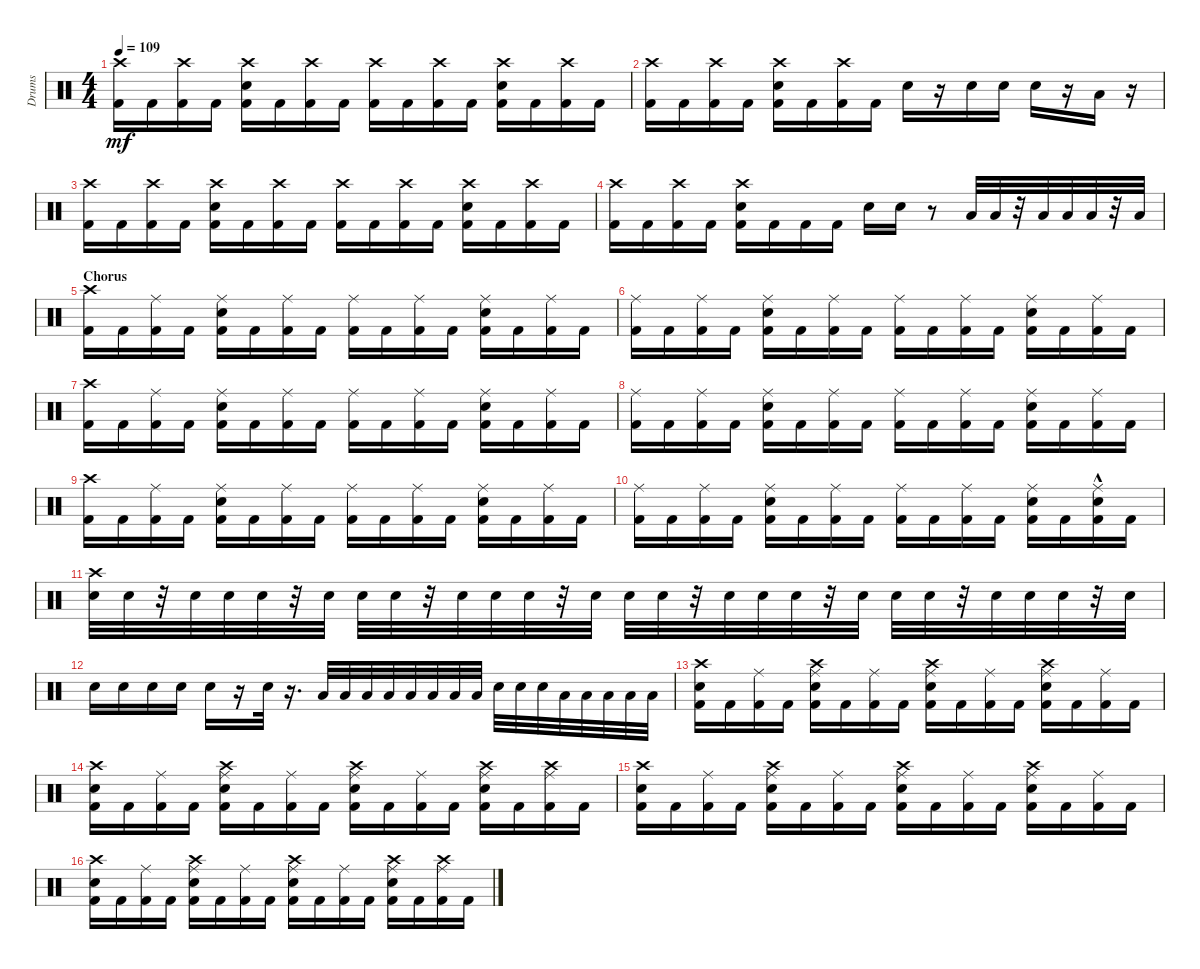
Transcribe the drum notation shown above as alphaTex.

\track ("Drums" "Drums") {instrument percussion}
\staff {score}
\articulation defaults
\ts (4 4)
\tempo 109
\clef neutral
\ks c
("Crash high (hit)" "Kick (hit) 2").16{dy mf} "Kick (hit) 2".16 ("Kick (hit) 2" "Crash high (hit)").16 "Kick (hit) 2".16 ("Crash high (hit)" "Snare (hit) 2" "Kick (hit) 2").16 "Kick (hit) 2".16 ("Kick (hit) 2" "Crash high (hit)").16 "Kick (hit) 2".16 ("Crash high (hit)" "Kick (hit) 2").16 "Kick (hit) 2".16 ("Kick (hit) 2" "Crash high (hit)").16 "Kick (hit) 2".16 ("Crash high (hit)" "Snare (hit) 2" "Kick (hit) 2").16 "Kick (hit) 2".16 ("Kick (hit) 2" "Crash high (hit)").16 "Kick (hit) 2".16 |
("Crash high (hit)" "Kick (hit) 2").16 "Kick (hit) 2".16 ("Kick (hit) 2" "Crash high (hit)").16 "Kick (hit) 2".16 ("Crash high (hit)" "Snare (hit) 2" "Kick (hit) 2").16 "Kick (hit) 2".16 ("Kick (hit) 2" "Crash high (hit)").16 "Kick (hit) 2".16 "Snare (hit) 2".16 r.16 "Snare (hit) 2".16 "Snare (hit) 2".16 "Snare (hit) 2".16 r.16 "Low Floor Tom (hit)".16 r.16 |
("Crash high (hit)" "Kick (hit) 2").16 "Kick (hit) 2".16 ("Kick (hit) 2" "Crash high (hit)").16 "Kick (hit) 2".16 ("Crash high (hit)" "Snare (hit) 2" "Kick (hit) 2").16 "Kick (hit) 2".16 ("Kick (hit) 2" "Crash high (hit)").16 "Kick (hit) 2".16 ("Crash high (hit)" "Kick (hit) 2").16 "Kick (hit) 2".16 ("Kick (hit) 2" "Crash high (hit)").16 "Kick (hit) 2".16 ("Crash high (hit)" "Snare (hit) 2" "Kick (hit) 2").16 "Kick (hit) 2".16 ("Kick (hit) 2" "Crash high (hit)").16 "Kick (hit) 2".16 |
("Crash high (hit)" "Kick (hit) 2").16 "Kick (hit) 2".16 ("Kick (hit) 2" "Crash high (hit)").16 "Kick (hit) 2".16 ("Crash high (hit)" "Snare (hit) 2" "Kick (hit) 2").16 "Kick (hit) 2".16 "Kick (hit) 2".16 "Kick (hit) 2".16 "Snare (hit) 2".16 "Snare (hit) 2".16 r.8 "Low Tom (hit)".32 "Low Tom (hit)".32 r.32 "Low Tom (hit)".32 "Low Floor Tom (hit)".32 "Low Floor Tom (hit)".32 r.32 "Low Floor Tom (hit)".32 |
\section ("" "Chorus")
("Kick (hit) 2" "Crash high (hit)").16 "Kick (hit) 2".16 ("Kick (hit) 2" "Ride (middle)").16 "Kick (hit) 2".16 ("Kick (hit) 2" "Snare (hit) 2" "Ride (middle)").16 "Kick (hit) 2".16 ("Kick (hit) 2" "Ride (middle)").16 "Kick (hit) 2".16 ("Kick (hit) 2" "Ride (middle)").16 "Kick (hit) 2".16 ("Kick (hit) 2" "Ride (middle)").16 "Kick (hit) 2".16 ("Kick (hit) 2" "Snare (hit) 2" "Ride (middle)").16 "Kick (hit) 2".16 ("Kick (hit) 2" "Ride (middle)").16 "Kick (hit) 2".16 |
("Ride (middle)" "Kick (hit) 2").16 "Kick (hit) 2".16 ("Ride (middle)" "Kick (hit) 2").16 "Kick (hit) 2".16 ("Ride (middle)" "Kick (hit) 2" "Snare (hit) 2").16 "Kick (hit) 2".16 ("Ride (middle)" "Kick (hit) 2").16 "Kick (hit) 2".16 ("Ride (middle)" "Kick (hit) 2").16 "Kick (hit) 2".16 ("Ride (middle)" "Kick (hit) 2").16 "Kick (hit) 2".16 ("Kick (hit) 2" "Snare (hit) 2" "Ride (middle)").16 "Kick (hit) 2".16 ("Kick (hit) 2" "Ride (middle)").16 "Kick (hit) 2".16 |
("Kick (hit) 2" "Crash high (hit)").16 "Kick (hit) 2".16 ("Kick (hit) 2" "Ride (middle)").16 "Kick (hit) 2".16 ("Kick (hit) 2" "Snare (hit) 2" "Ride (middle)").16 "Kick (hit) 2".16 ("Kick (hit) 2" "Ride (middle)").16 "Kick (hit) 2".16 ("Kick (hit) 2" "Ride (middle)").16 "Kick (hit) 2".16 ("Kick (hit) 2" "Ride (middle)").16 "Kick (hit) 2".16 ("Kick (hit) 2" "Snare (hit) 2" "Ride (middle)").16 "Kick (hit) 2".16 ("Kick (hit) 2" "Ride (middle)").16 "Kick (hit) 2".16 |
("Ride (middle)" "Kick (hit) 2").16 "Kick (hit) 2".16 ("Ride (middle)" "Kick (hit) 2").16 "Kick (hit) 2".16 ("Ride (middle)" "Kick (hit) 2" "Snare (hit) 2").16 "Kick (hit) 2".16 ("Ride (middle)" "Kick (hit) 2").16 "Kick (hit) 2".16 ("Ride (middle)" "Kick (hit) 2").16 "Kick (hit) 2".16 ("Ride (middle)" "Kick (hit) 2").16 "Kick (hit) 2".16 ("Kick (hit) 2" "Snare (hit) 2" "Ride (middle)").16 "Kick (hit) 2".16 ("Kick (hit) 2" "Ride (middle)").16 "Kick (hit) 2".16 |
("Kick (hit) 2" "Crash high (hit)").16 "Kick (hit) 2".16 ("Kick (hit) 2" "Ride (middle)").16 "Kick (hit) 2".16 ("Kick (hit) 2" "Snare (hit) 2" "Ride (middle)").16 "Kick (hit) 2".16 ("Kick (hit) 2" "Ride (middle)").16 "Kick (hit) 2".16 ("Kick (hit) 2" "Ride (middle)").16 "Kick (hit) 2".16 ("Kick (hit) 2" "Ride (middle)").16 "Kick (hit) 2".16 ("Kick (hit) 2" "Snare (hit) 2" "Ride (middle)").16 "Kick (hit) 2".16 ("Kick (hit) 2" "Ride (middle)").16 "Kick (hit) 2".16 |
("Ride (middle)" "Kick (hit) 2").16 "Kick (hit) 2".16 ("Ride (middle)" "Kick (hit) 2").16 "Kick (hit) 2".16 ("Ride (middle)" "Kick (hit) 2" "Snare (hit) 2").16 "Kick (hit) 2".16 ("Ride (middle)" "Kick (hit) 2").16 "Kick (hit) 2".16 ("Ride (middle)" "Kick (hit) 2").16 "Kick (hit) 2".16 ("Ride (middle)" "Kick (hit) 2").16 "Kick (hit) 2".16 ("Kick (hit) 2" "Snare (hit) 2" "Ride (middle)").16 "Kick (hit) 2".16 ("Kick (hit) 2" "Ride (middle)" "Snare (hit) 2"{hac}).16 "Kick (hit) 2".16 |
("Crash high (hit)" "Snare (hit) 2").32 "Snare (hit) 2".32 r.32 "Snare (hit) 2".32 "Snare (hit) 2".32 "Snare (hit) 2".32 r.32 "Snare (hit) 2".32 "Snare (hit) 2".32 "Snare (hit) 2".32 r.32 "Snare (hit) 2".32 "Snare (hit) 2".32 "Snare (hit) 2".32 r.32 "Snare (hit) 2".32 "Snare (hit) 2".32 "Snare (hit) 2".32 r.32 "Snare (hit) 2".32 "Snare (hit) 2".32 "Snare (hit) 2".32 r.32 "Snare (hit) 2".32 "Snare (hit) 2".32 "Snare (hit) 2".32 r.32 "Snare (hit) 2".32 "Snare (hit) 2".32 "Snare (hit) 2".32 r.32 "Snare (hit) 2".32 |
"Snare (hit) 2".16 "Snare (hit) 2".16 "Snare (hit) 2".16 "Snare (hit) 2".16 "Snare (hit) 2".16 r.16 "Snare (hit) 2".32 r.16{d} "Low Tom (hit)".32 "Low Tom (hit)".32 "Low Tom (hit)".32 "Low Floor Tom (hit)".32 "Low Floor Tom (hit)".32 "Low Tom (hit)".32 "Low Tom (hit)".32 "Low Tom (hit)".32 "Snare (hit) 2".32 "Snare (hit) 2".32 "Snare (hit) 2".32 "Low Tom (hit)".32 "Low Tom (hit)".32 "Low Tom (hit)".32 "Low Floor Tom (hit)".32 "Low Floor Tom (hit)".32 |
("Kick (hit) 2" "Crash high (hit)" "Snare (hit) 2").16 "Kick (hit) 2".16 ("Kick (hit) 2" "Ride (middle)").16 "Kick (hit) 2".16 ("Kick (hit) 2" "Snare (hit) 2" "Ride (middle)" "Crash high (hit)").16 "Kick (hit) 2".16 ("Kick (hit) 2" "Ride (middle)").16 "Kick (hit) 2".16 ("Kick (hit) 2" "Crash high (hit)" "Snare (hit) 2" "Ride (middle)").16 "Kick (hit) 2".16 ("Kick (hit) 2" "Ride (middle)").16 "Kick (hit) 2".16 ("Kick (hit) 2" "Snare (hit) 2" "Ride (middle)" "Crash high (hit)").16 "Kick (hit) 2".16 ("Kick (hit) 2" "Ride (middle)").16 "Kick (hit) 2".16 |
("Kick (hit) 2" "Crash high (hit)" "Snare (hit) 2").16 "Kick (hit) 2".16 ("Kick (hit) 2" "Ride (middle)").16 "Kick (hit) 2".16 ("Kick (hit) 2" "Snare (hit) 2" "Ride (middle)" "Crash high (hit)").16 "Kick (hit) 2".16 ("Kick (hit) 2" "Ride (middle)").16 "Kick (hit) 2".16 ("Kick (hit) 2" "Crash high (hit)" "Snare (hit) 2" "Ride (middle)").16 "Kick (hit) 2".16 ("Kick (hit) 2" "Ride (middle)").16 "Kick (hit) 2".16 ("Kick (hit) 2" "Snare (hit) 2" "Ride (middle)" "Crash high (hit)").16 "Kick (hit) 2".16 ("Kick (hit) 2" "Ride (middle)" "Crash high (hit)").16 "Kick (hit) 2".16 |
("Kick (hit) 2" "Crash high (hit)" "Snare (hit) 2").16 "Kick (hit) 2".16 ("Kick (hit) 2" "Ride (middle)").16 "Kick (hit) 2".16 ("Kick (hit) 2" "Snare (hit) 2" "Ride (middle)" "Crash high (hit)").16 "Kick (hit) 2".16 ("Kick (hit) 2" "Ride (middle)").16 "Kick (hit) 2".16 ("Kick (hit) 2" "Crash high (hit)" "Snare (hit) 2" "Ride (middle)").16 "Kick (hit) 2".16 ("Kick (hit) 2" "Ride (middle)").16 "Kick (hit) 2".16 ("Kick (hit) 2" "Snare (hit) 2" "Ride (middle)" "Crash high (hit)").16 "Kick (hit) 2".16 ("Kick (hit) 2" "Ride (middle)").16 "Kick (hit) 2".16 |
("Kick (hit) 2" "Crash high (hit)" "Snare (hit) 2").16 "Kick (hit) 2".16 ("Kick (hit) 2" "Ride (middle)").16 "Kick (hit) 2".16 ("Kick (hit) 2" "Snare (hit) 2" "Ride (middle)" "Crash high (hit)").16 "Kick (hit) 2".16 ("Kick (hit) 2" "Ride (middle)").16 "Kick (hit) 2".16 ("Kick (hit) 2" "Crash high (hit)" "Snare (hit) 2" "Ride (middle)").16 "Kick (hit) 2".16 ("Kick (hit) 2" "Ride (middle)").16 "Kick (hit) 2".16 ("Kick (hit) 2" "Snare (hit) 2" "Ride (middle)" "Crash high (hit)").16 "Kick (hit) 2".16 ("Kick (hit) 2" "Ride (middle)" "Crash high (hit)").16 "Kick (hit) 2".16
